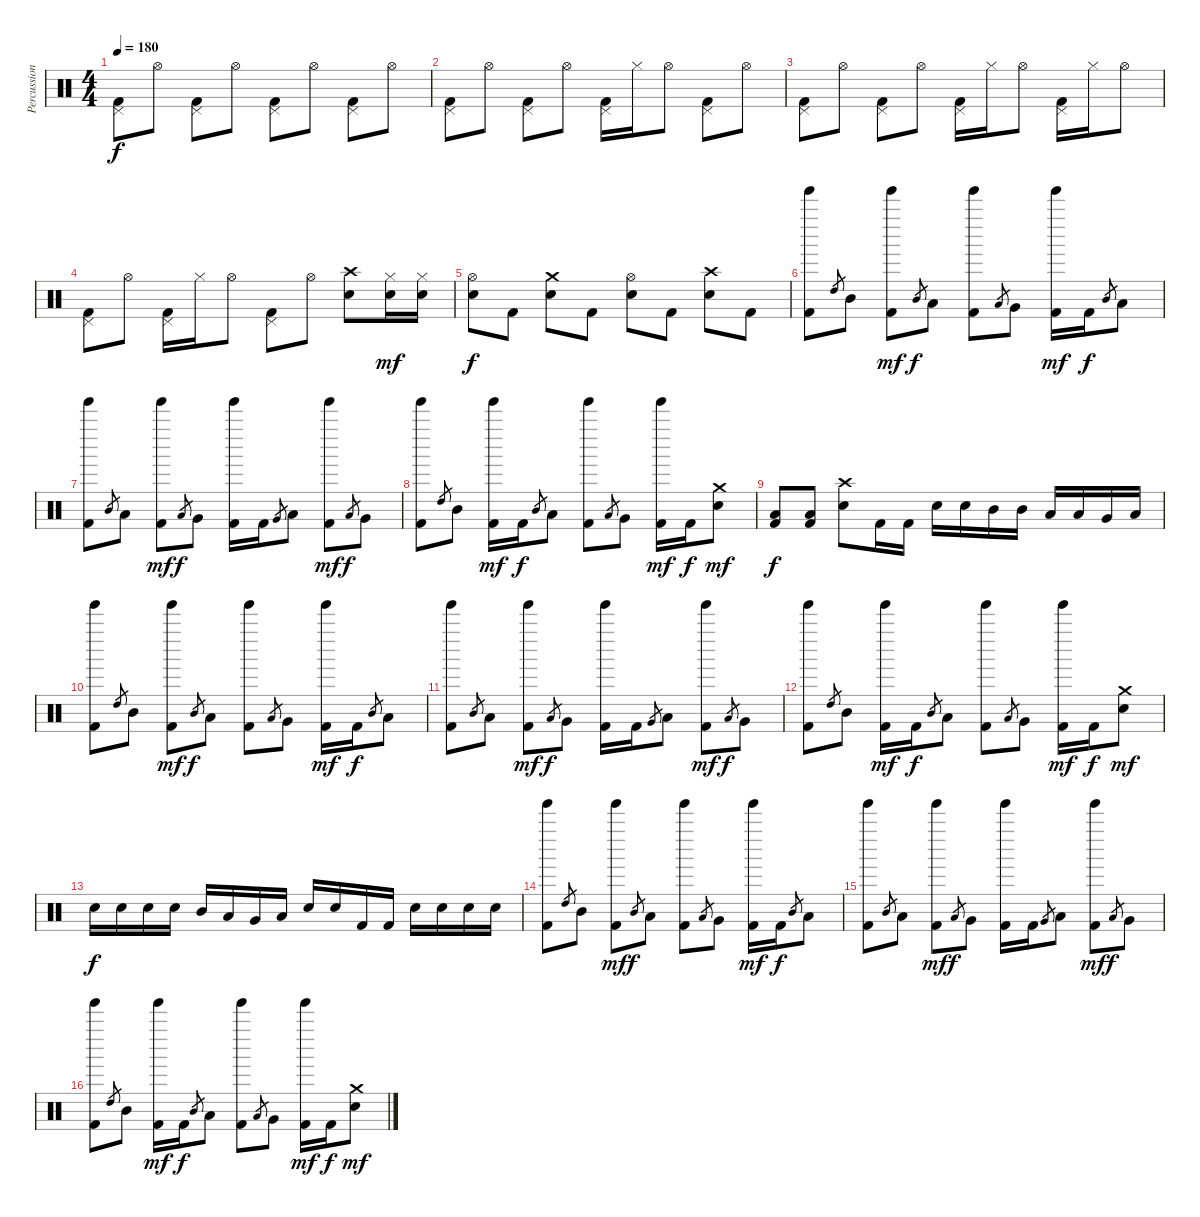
\track ("Percussion" "Percussion") {instrument percussion}
\staff {score}
\articulation defaults
\ts (4 4)
\tempo 180
\clef neutral
\ks c
("Pedal Hi-Hat (hit)" "Kick (hit) 2").8{dy f} "Hi-Hat (open)".8 ("Pedal Hi-Hat (hit)" "Kick (hit) 2").8 "Hi-Hat (open)".8 ("Pedal Hi-Hat (hit)" "Kick (hit) 2").8 "Hi-Hat (open)".8 ("Pedal Hi-Hat (hit)" "Kick (hit) 2").8 "Hi-Hat (open)".8 |
("Pedal Hi-Hat (hit)" "Kick (hit) 2").8 "Hi-Hat (open)".8 ("Pedal Hi-Hat (hit)" "Kick (hit) 2").8 "Hi-Hat (open)".8 ("Pedal Hi-Hat (hit)" "Kick (hit) 2").16 "Hi-Hat (closed)".16 "Hi-Hat (open)".8 ("Pedal Hi-Hat (hit)" "Kick (hit) 2").8 "Hi-Hat (open)".8 |
("Pedal Hi-Hat (hit)" "Kick (hit) 2").8 "Hi-Hat (open)".8 ("Pedal Hi-Hat (hit)" "Kick (hit) 2").8 "Hi-Hat (open)".8 ("Pedal Hi-Hat (hit)" "Kick (hit) 2").16 "Hi-Hat (closed)".16 "Hi-Hat (open)".8 ("Pedal Hi-Hat (hit)" "Kick (hit) 2").16 "Hi-Hat (closed)".16 "Hi-Hat (open)".8 |
("Pedal Hi-Hat (hit)" "Kick (hit) 2").8 "Hi-Hat (open)".8 ("Pedal Hi-Hat (hit)" "Kick (hit) 2").16 "Hi-Hat (closed)".16 "Hi-Hat (open)".8 ("Pedal Hi-Hat (hit)" "Kick (hit) 2").8 "Hi-Hat (open)".8 ("Crash high (hit)" "Snare (hit) 2").8 ("Hi-Hat (closed)" "Snare (hit) 2").16{dy mf} ("Hi-Hat (closed)" "Snare (hit) 2").16 |
("Hi-Hat (open)" "Snare (hit) 2").8{dy f} "Kick (hit) 2".8 ("Crash medium (hit)" "Snare (hit) 2").8 "Kick (hit) 2".8 ("Hi-Hat (open)" "Snare (hit) 2").8 "Kick (hit) 2".8 ("Crash high (hit)" "Snare (hit) 2").8 "Kick (hit) 2".8 |
("Tinkle Bell (hit)" "Kick (hit) 2").8 "High Tom (hit)".8{gr} "Mid Tom (hit)".8 ("Tinkle Bell (hit)" "Kick (hit) 2").8{dy mf} "Mid Tom (hit)".8{gr dy f} "Low Tom (hit)".8 ("Tinkle Bell (hit)" "Kick (hit) 2").8 "Low Tom (hit)".8{gr} "Very Low Tom (hit)".8 ("Tinkle Bell (hit)" "Kick (hit) 2").16{dy mf} "Kick (hit) 2".16{dy f} "Mid Tom (hit)".8{gr} "Low Tom (hit)".8 |
("Tinkle Bell (hit)" "Kick (hit) 2").8 "Mid Tom (hit)".8{gr} "Low Tom (hit)".8 ("Tinkle Bell (hit)" "Kick (hit) 2").8{dy mf} "Low Tom (hit)".8{gr dy f} "Very Low Tom (hit)".8 ("Tinkle Bell (hit)" "Kick (hit) 2").16 "Kick (hit) 2".16 "Very Low Tom (hit)".8{gr} "Low Floor Tom (hit)".8 ("Tinkle Bell (hit)" "Kick (hit) 2").8{dy mf} "Low Tom (hit)".8{gr dy f} "Very Low Tom (hit)".8 |
("Tinkle Bell (hit)" "Kick (hit) 2").8 "High Tom (hit)".8{gr} "Mid Tom (hit)".8 ("Tinkle Bell (hit)" "Kick (hit) 2").16{dy mf} "Kick (hit) 2".16{dy f} "Mid Tom (hit)".8{gr} "Low Tom (hit)".8 ("Tinkle Bell (hit)" "Kick (hit) 2").8 "Low Tom (hit)".8{gr} "Very Low Tom (hit)".8 ("Tinkle Bell (hit)" "Kick (hit) 2").16{dy mf} "Kick (hit) 2".16{dy f} ("Crash medium (hit)" "Snare (hit) 2").8{dy mf} |
("Low Floor Tom (hit)" "Kick (hit) 2").8{dy f} ("Low Floor Tom (hit)" "Kick (hit) 2").8 ("Crash high (hit)" "Snare (hit) 2").8 "Kick (hit) 2".16 "Kick (hit) 2".16 "Snare (hit) 2".16 "Snare (hit) 2".16 "Mid Tom (hit)".16 "Mid Tom (hit)".16 "Low Tom (hit)".16 "Low Tom (hit)".16 "Very Low Tom (hit)".16 "Low Floor Tom (hit)".16 |
("Tinkle Bell (hit)" "Kick (hit) 2").8 "High Tom (hit)".8{gr} "Mid Tom (hit)".8 ("Tinkle Bell (hit)" "Kick (hit) 2").8{dy mf} "Mid Tom (hit)".8{gr dy f} "Low Tom (hit)".8 ("Tinkle Bell (hit)" "Kick (hit) 2").8 "Low Tom (hit)".8{gr} "Very Low Tom (hit)".8 ("Tinkle Bell (hit)" "Kick (hit) 2").16{dy mf} "Kick (hit) 2".16{dy f} "Mid Tom (hit)".8{gr} "Low Tom (hit)".8 |
("Tinkle Bell (hit)" "Kick (hit) 2").8 "Mid Tom (hit)".8{gr} "Low Tom (hit)".8 ("Tinkle Bell (hit)" "Kick (hit) 2").8{dy mf} "Low Tom (hit)".8{gr dy f} "Very Low Tom (hit)".8 ("Tinkle Bell (hit)" "Kick (hit) 2").16 "Kick (hit) 2".16 "Very Low Tom (hit)".8{gr} "Low Floor Tom (hit)".8 ("Tinkle Bell (hit)" "Kick (hit) 2").8{dy mf} "Low Tom (hit)".8{gr dy f} "Very Low Tom (hit)".8 |
("Tinkle Bell (hit)" "Kick (hit) 2").8 "High Tom (hit)".8{gr} "Mid Tom (hit)".8 ("Tinkle Bell (hit)" "Kick (hit) 2").16{dy mf} "Kick (hit) 2".16{dy f} "Mid Tom (hit)".8{gr} "Low Tom (hit)".8 ("Tinkle Bell (hit)" "Kick (hit) 2").8 "Low Tom (hit)".8{gr} "Very Low Tom (hit)".8 ("Tinkle Bell (hit)" "Kick (hit) 2").16{dy mf} "Kick (hit) 2".16{dy f} ("Crash medium (hit)" "Snare (hit) 2").8{dy mf} |
"Snare (hit) 2".16{dy f} "Snare (hit) 2".16 "Snare (hit) 2".16 "Snare (hit) 2".16 "Mid Tom (hit)".16 "Low Tom (hit)".16 "Very Low Tom (hit)".16 "Low Floor Tom (hit)".16 "Snare (hit) 2".16 "Snare (hit) 2".16 "Kick (hit) 2".16 "Kick (hit) 2".16 "Snare (hit) 2".16 "Snare (hit) 2".16 "Snare (hit) 2".16 "Snare (hit) 2".16 |
("Tinkle Bell (hit)" "Kick (hit) 2").8 "High Tom (hit)".8{gr} "Mid Tom (hit)".8 ("Tinkle Bell (hit)" "Kick (hit) 2").8{dy mf} "Mid Tom (hit)".8{gr dy f} "Low Tom (hit)".8 ("Tinkle Bell (hit)" "Kick (hit) 2").8 "Low Tom (hit)".8{gr} "Very Low Tom (hit)".8 ("Tinkle Bell (hit)" "Kick (hit) 2").16{dy mf} "Kick (hit) 2".16{dy f} "Mid Tom (hit)".8{gr} "Low Tom (hit)".8 |
("Tinkle Bell (hit)" "Kick (hit) 2").8 "Mid Tom (hit)".8{gr} "Low Tom (hit)".8 ("Tinkle Bell (hit)" "Kick (hit) 2").8{dy mf} "Low Tom (hit)".8{gr dy f} "Very Low Tom (hit)".8 ("Tinkle Bell (hit)" "Kick (hit) 2").16 "Kick (hit) 2".16 "Very Low Tom (hit)".8{gr} "Low Floor Tom (hit)".8 ("Tinkle Bell (hit)" "Kick (hit) 2").8{dy mf} "Low Tom (hit)".8{gr dy f} "Very Low Tom (hit)".8 |
("Tinkle Bell (hit)" "Kick (hit) 2").8 "High Tom (hit)".8{gr} "Mid Tom (hit)".8 ("Tinkle Bell (hit)" "Kick (hit) 2").16{dy mf} "Kick (hit) 2".16{dy f} "Mid Tom (hit)".8{gr} "Low Tom (hit)".8 ("Tinkle Bell (hit)" "Kick (hit) 2").8 "Low Tom (hit)".8{gr} "Very Low Tom (hit)".8 ("Tinkle Bell (hit)" "Kick (hit) 2").16{dy mf} "Kick (hit) 2".16{dy f} ("Crash medium (hit)" "Snare (hit) 2").8{dy mf}
